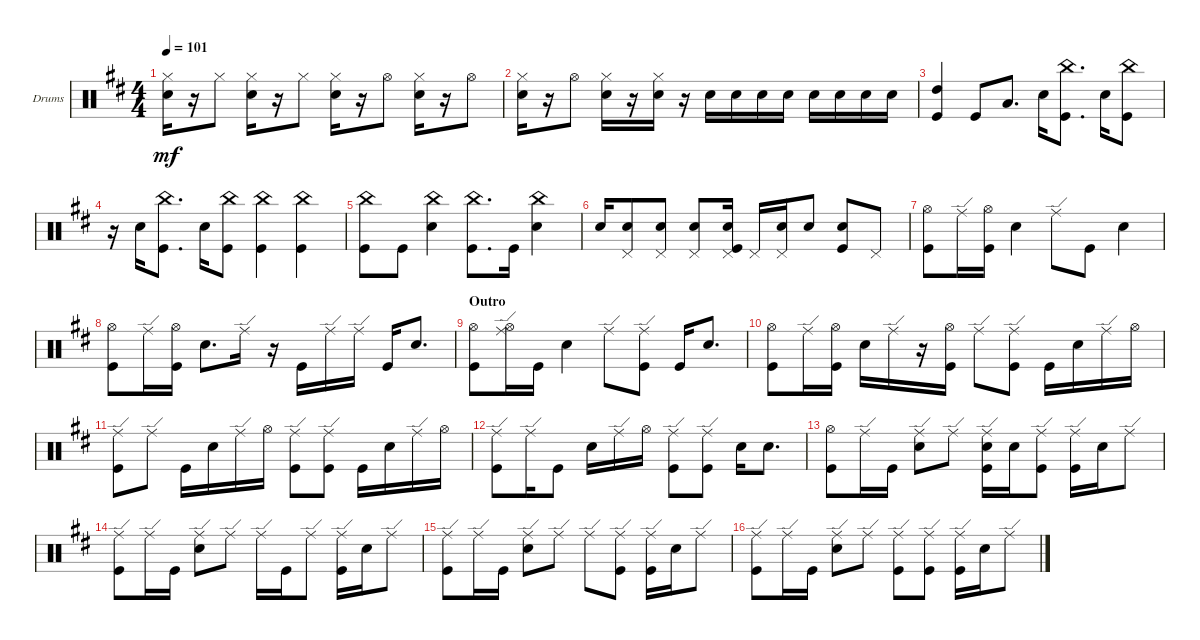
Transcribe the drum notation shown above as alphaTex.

\bracketExtendMode groupsimilarinstruments
\firstSystemTrackNameOrientation horizontal
\otherSystemsTrackNameOrientation horizontal
\track ("Drumkit" "Drums") {instrument percussion}
\staff {score}
\articulation defaults
\ts (4 4)
\tempo 101
\clef neutral
\scale
0.333333
\ks d
("Snare (hit) 2" "Hi-Hat (closed)").16{dy mf} r.16 "Hi-Hat (closed)".8 ("Snare (hit) 2" "Hi-Hat (closed)").16 r.16 "Hi-Hat (closed)".8 ("Snare (hit) 2" "Hi-Hat (closed)").16 r.16 "Hi-Hat (open)".8 ("Snare (hit) 2" "Hi-Hat (closed)").16 r.16 "Hi-Hat (open)".8 |
\scale
0.333333 ("Snare (hit) 2" "Hi-Hat (closed)").16 r.16 "Hi-Hat (open)".8 ("Snare (hit) 2" "Hi-Hat (closed)").16 r.16 ("Snare (hit) 2" "Hi-Hat (closed)").16 r.16 "Snare (hit) 2".16 "Snare (hit) 2".16 "Snare (hit) 2".16 "Snare (hit) 2".16 "Snare (hit) 2".16 "Snare (hit) 2".16 "Snare (hit) 2".16 "Snare (hit) 2".16 |
\scale
0.333333 ("Kick (hit)" "High Tom (hit)").4 "Kick (hit)".8 "Low Tom (hit)".8{d} "Snare (hit) 2".16 ("Kick (hit)" "China (hit)").8{d} "Snare (hit) 2".16 ("China (hit)" "Kick (hit)").8 |
\scale
0.333333 r.16 "Snare (hit) 2".16 ("China (hit)" "Kick (hit)").8{d} "Snare (hit) 2".16 ("China (hit)" "Kick (hit)").8 ("China (hit)" "Kick (hit)").4 ("Kick (hit)" "China (hit)").4 |
\scale
0.333333 ("Kick (hit)" "China (hit)").8 "Kick (hit)".8 ("Snare (hit) 2" "China (hit)").4 ("Kick (hit)" "China (hit)").8{d} "Kick (hit)".16 ("Snare (hit) 2" "China (hit)").4 |
\scale
0.333333 "Snare (hit) 2".16 ("Pedal Hi-Hat (hit)" "Snare (hit) 2").8 ("Pedal Hi-Hat (hit)" "Snare (hit) 2").8 ("Snare (hit) 2" "Pedal Hi-Hat (hit)").8 ("Pedal Hi-Hat (hit)" "Kick (hit)" "Snare (hit) 2").16 "Pedal Hi-Hat (hit)".16 ("Snare (hit) 2" "Pedal Hi-Hat (hit)").16 "Snare (hit) 2".8 ("Kick (hit)" "Snare (hit) 2").8 "Pedal Hi-Hat (hit)".8 |
\scale
0.333333 ("Kick (hit)" "Hi-Hat (open)").8 "Ride (edge)".16 ("Kick (hit)" "Hi-Hat (open)").16 "Snare (hit) 2".4 "Ride (edge)".8 "Kick (hit)".8 "Snare (hit) 2".4 |
\scale
0.333333 ("Kick (hit)" "Hi-Hat (open)").8 "Ride (edge)".16 ("Kick (hit)" "Hi-Hat (open)").16 "Snare (hit) 2".8{d} "Ride (edge)".16 r.16 "Kick (hit)".16 "Ride (edge)".16 "Ride (edge)".16 "Kick (hit)".16 "Snare (hit) 2".8{d} |
\section ("" "Outro")
\scale
0.333333 ("Kick (hit)" "Hi-Hat (open)").8 ("Ride (edge)" "Hi-Hat (open)").16 "Kick (hit)".16 "Snare (hit) 2".4 "Ride (edge)".8 ("Kick (hit)" "Ride (edge)").8 "Kick (hit)".16 "Snare (hit) 2".8{d} |
\scale
0.333333 ("Kick (hit)" "Hi-Hat (open)").8 "Ride (edge)".16 ("Kick (hit)" "Hi-Hat (open)").16 "Snare (hit) 2".16 "Ride (edge)".16 r.16 ("Kick (hit)" "Hi-Hat (open)").16 "Ride (edge)".8 ("Kick (hit)" "Ride (edge)").8 "Kick (hit)".16 "Snare (hit) 2".16 "Ride (edge)".16 "Hi-Hat (open)".16 |
\scale
0.333333 ("Kick (hit)" "Ride (edge)").8 "Ride (edge)".8 "Kick (hit)".16 "Snare (hit) 2".16 "Ride (edge)".16 "Hi-Hat (open)".16 ("Kick (hit)" "Ride (edge)").8 ("Kick (hit)" "Ride (edge)").8 "Kick (hit)".16 "Snare (hit) 2".16 "Ride (edge)".16 "Hi-Hat (open)".16 |
\scale
0.333333 ("Kick (hit)" "Ride (edge)").8 "Ride (edge)".16 "Kick (hit)".8 "Snare (hit) 2".16 "Ride (edge)".16 "Hi-Hat (open)".16 ("Kick (hit)" "Ride (edge)").8 ("Kick (hit)" "Ride (edge)").8 "Snare (hit) 2".16 "Snare (hit) 2".8{d} |
\scale
0.333333 ("Kick (hit)" "Hi-Hat (open)").8 "Ride (edge)".16 "Kick (hit)".16 ("Snare (hit) 2" "Ride (edge)").8 "Ride (edge)".8 ("Snare (hit) 2" "Kick (hit)" "Ride (edge)").16 "Snare (hit) 2".16 ("Kick (hit)" "Ride (edge)").8 ("Kick (hit)" "Ride (edge)").16 "Snare (hit) 2".16 "Ride (edge)".8 |
\scale
0.333333 ("Kick (hit)" "Ride (edge)").8 "Ride (edge)".16 "Kick (hit)".16 ("Snare (hit) 2" "Ride (edge)").8 "Ride (edge)".8 "Ride (edge)".16 "Kick (hit)".16 "Ride (edge)".8 ("Kick (hit)" "Ride (edge)").16 "Snare (hit) 2".16 "Ride (edge)".8 |
\scale
0.333333 ("Kick (hit)" "Ride (edge)").8 "Ride (edge)".16 "Kick (hit)".16 ("Snare (hit) 2" "Ride (edge)").8 "Ride (edge)".8 "Ride (edge)".8 ("Kick (hit)" "Ride (edge)").8 ("Kick (hit)" "Ride (edge)").16 "Snare (hit) 2".16 "Ride (edge)".8 |
\scale
0.333333 ("Kick (hit)" "Ride (edge)").8 "Ride (edge)".16 "Kick (hit)".16 ("Snare (hit) 2" "Ride (edge)").8 "Ride (edge)".8 ("Kick (hit)" "Ride (edge)").8 ("Kick (hit)" "Ride (edge)").8 ("Kick (hit)" "Ride (edge)").16 "Snare (hit) 2".16 "Ride (edge)".8
